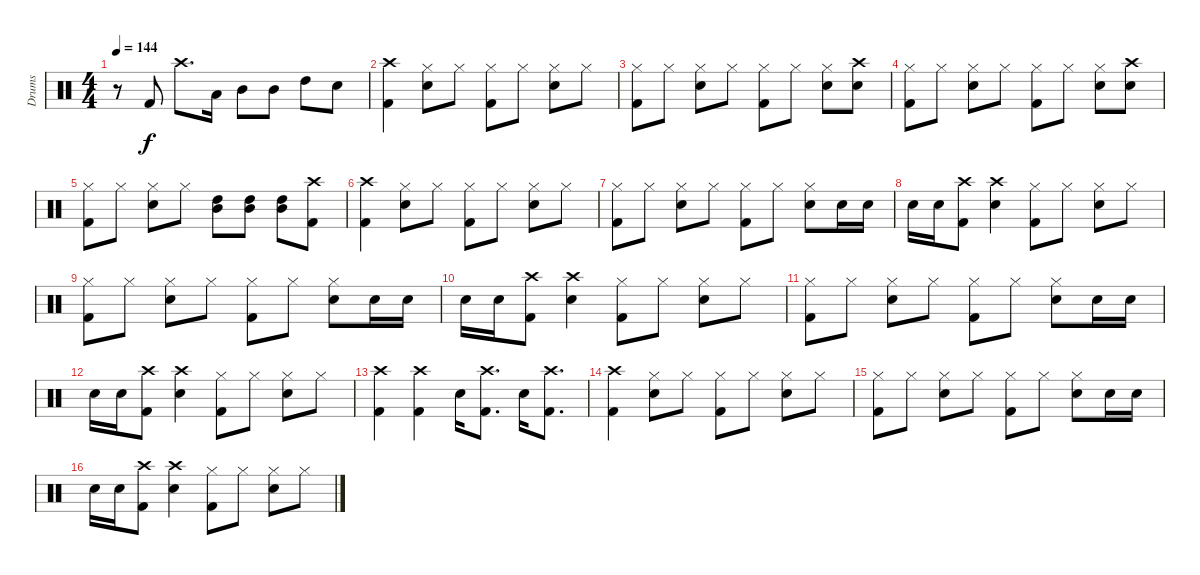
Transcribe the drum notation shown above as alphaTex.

\track ("Drums" "Drums") {instrument percussion}
\staff {score}
\articulation defaults
\ts (4 4)
\tempo 144
\clef neutral
\ks c
r.8{dy f} "Kick (hit) 2".8 "Crash high (hit)".8{d} "Low Tom (hit)".16 "Mid Tom (hit)".8 "Mid Tom (hit)".8 "High Tom (hit)".8 "Snare (hit) 2".8 |
("Crash high (hit)" "Kick (hit) 2").4 ("Hi-Hat (closed)" "Snare (hit) 2").8 "Hi-Hat (closed)".8 ("Hi-Hat (closed)" "Kick (hit) 2").8 "Hi-Hat (closed)".8 ("Hi-Hat (closed)" "Snare (hit) 2").8 "Hi-Hat (closed)".8 |
("Hi-Hat (closed)" "Kick (hit) 2").8 "Hi-Hat (closed)".8 ("Hi-Hat (closed)" "Snare (hit) 2").8 "Hi-Hat (closed)".8 ("Hi-Hat (closed)" "Kick (hit) 2").8 "Hi-Hat (closed)".8 ("Hi-Hat (closed)" "Snare (hit) 2").8 ("Crash high (hit)" "Snare (hit) 2").8 |
("Hi-Hat (closed)" "Kick (hit) 2").8 "Hi-Hat (closed)".8 ("Hi-Hat (closed)" "Snare (hit) 2").8 "Hi-Hat (closed)".8 ("Hi-Hat (closed)" "Kick (hit) 2").8 "Hi-Hat (closed)".8 ("Hi-Hat (closed)" "Snare (hit) 2").8 ("Crash high (hit)" "Snare (hit) 2").8 |
("Hi-Hat (closed)" "Kick (hit) 2").8 "Hi-Hat (closed)".8 ("Hi-Hat (closed)" "Snare (hit) 2").8 "Hi-Hat (closed)".8 ("High Tom (hit)" "Mid Tom (hit)").8 ("High Tom (hit)" "Mid Tom (hit)").8 ("High Tom (hit)" "Mid Tom (hit)").8 ("Crash high (hit)" "Kick (hit) 2").8 |
("Crash high (hit)" "Kick (hit) 2").4 ("Hi-Hat (closed)" "Snare (hit) 2").8 "Hi-Hat (closed)".8 ("Hi-Hat (closed)" "Kick (hit) 2").8 "Hi-Hat (closed)".8 ("Hi-Hat (closed)" "Snare (hit) 2").8 "Hi-Hat (closed)".8 |
("Hi-Hat (closed)" "Kick (hit) 2").8 "Hi-Hat (closed)".8 ("Hi-Hat (closed)" "Snare (hit) 2").8 "Hi-Hat (closed)".8 ("Hi-Hat (closed)" "Kick (hit) 2").8 "Hi-Hat (closed)".8 ("Hi-Hat (closed)" "Snare (hit) 2").8 "Snare (hit) 2".16 "Snare (hit) 2".16 |
"Snare (hit) 2".16 "Snare (hit) 2".16 ("Crash high (hit)" "Kick (hit) 2").8 ("Crash high (hit)" "Snare (hit) 2").4 ("Hi-Hat (closed)" "Kick (hit) 2").8 "Hi-Hat (closed)".8 ("Hi-Hat (closed)" "Snare (hit) 2").8 "Hi-Hat (closed)".8 |
("Hi-Hat (closed)" "Kick (hit) 2").8 "Hi-Hat (closed)".8 ("Hi-Hat (closed)" "Snare (hit) 2").8 "Hi-Hat (closed)".8 ("Hi-Hat (closed)" "Kick (hit) 2").8 "Hi-Hat (closed)".8 ("Hi-Hat (closed)" "Snare (hit) 2").8 "Snare (hit) 2".16 "Snare (hit) 2".16 |
"Snare (hit) 2".16 "Snare (hit) 2".16 ("Crash high (hit)" "Kick (hit) 2").8 ("Crash high (hit)" "Snare (hit) 2").4 ("Hi-Hat (closed)" "Kick (hit) 2").8 "Hi-Hat (closed)".8 ("Hi-Hat (closed)" "Snare (hit) 2").8 "Hi-Hat (closed)".8 |
("Hi-Hat (closed)" "Kick (hit) 2").8 "Hi-Hat (closed)".8 ("Hi-Hat (closed)" "Snare (hit) 2").8 "Hi-Hat (closed)".8 ("Hi-Hat (closed)" "Kick (hit) 2").8 "Hi-Hat (closed)".8 ("Hi-Hat (closed)" "Snare (hit) 2").8 "Snare (hit) 2".16 "Snare (hit) 2".16 |
"Snare (hit) 2".16 "Snare (hit) 2".16 ("Crash high (hit)" "Kick (hit) 2").8 ("Crash high (hit)" "Snare (hit) 2").4 ("Hi-Hat (closed)" "Kick (hit) 2").8 "Hi-Hat (closed)".8 ("Hi-Hat (closed)" "Snare (hit) 2").8 "Hi-Hat (closed)".8 |
("Crash high (hit)" "Kick (hit) 2").4 ("Crash high (hit)" "Kick (hit) 2").4 "Snare (hit) 2".16 ("Crash high (hit)" "Kick (hit) 2").8{d} "Snare (hit) 2".16 ("Crash high (hit)" "Kick (hit) 2").8{d} |
("Crash high (hit)" "Kick (hit) 2").4 ("Hi-Hat (closed)" "Snare (hit) 2").8 "Hi-Hat (closed)".8 ("Hi-Hat (closed)" "Kick (hit) 2").8 "Hi-Hat (closed)".8 ("Hi-Hat (closed)" "Snare (hit) 2").8 "Hi-Hat (closed)".8 |
("Hi-Hat (closed)" "Kick (hit) 2").8 "Hi-Hat (closed)".8 ("Hi-Hat (closed)" "Snare (hit) 2").8 "Hi-Hat (closed)".8 ("Hi-Hat (closed)" "Kick (hit) 2").8 "Hi-Hat (closed)".8 ("Hi-Hat (closed)" "Snare (hit) 2").8 "Snare (hit) 2".16 "Snare (hit) 2".16 |
"Snare (hit) 2".16 "Snare (hit) 2".16 ("Crash high (hit)" "Kick (hit) 2").8 ("Crash high (hit)" "Snare (hit) 2").4 ("Hi-Hat (closed)" "Kick (hit) 2").8 "Hi-Hat (closed)".8 ("Hi-Hat (closed)" "Snare (hit) 2").8 "Hi-Hat (closed)".8
